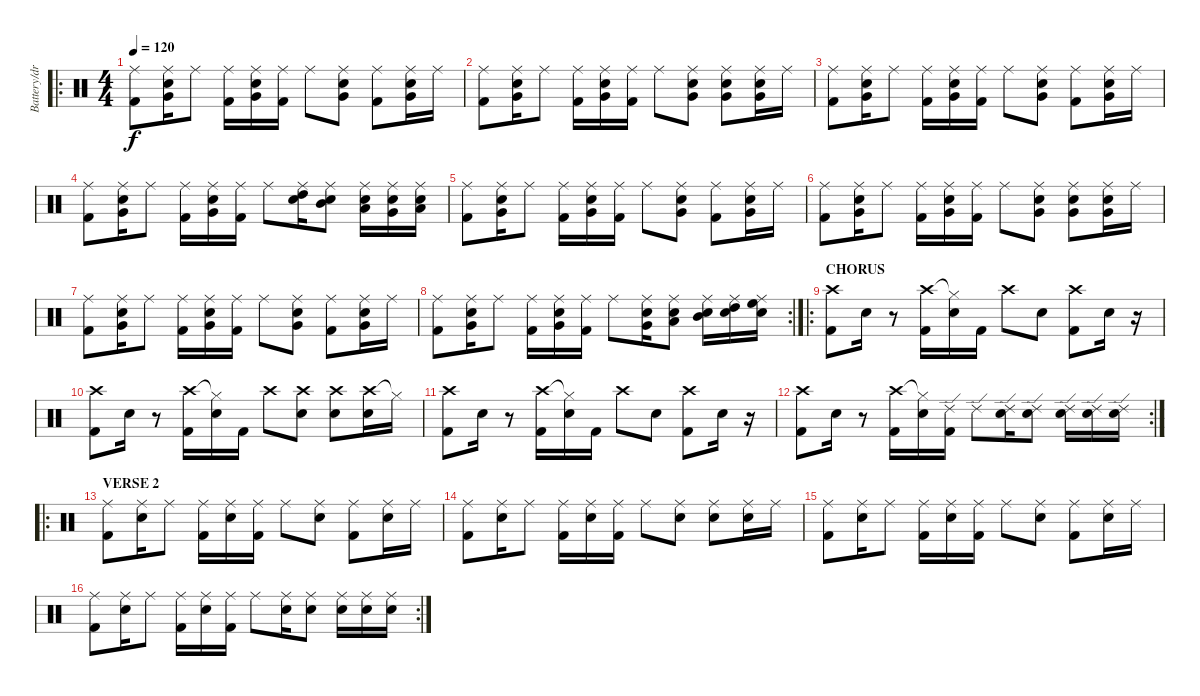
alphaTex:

\track ("Battery/drums" "Battery/dr") {instrument percussion}
\staff {score}
\articulation defaults
\ro
\ts (4 4)
\tempo 120
\clef neutral
\ks c
("Ride (middle)" "Kick (hit) 2").8{dy f} ("Ride (middle)" "Very Low Tom (hit)" "Electric Snare (hit)").16 "Ride (middle)".8 ("Ride (middle)" "Kick (hit) 2").16 ("Ride (middle)" "Very Low Tom (hit)" "Electric Snare (hit)").16 ("Ride (middle)" "Kick (hit) 2").16 "Ride (middle)".8 ("Ride (middle)" "Very Low Tom (hit)" "Electric Snare (hit)").8 ("Ride (middle)" "Kick (hit) 2").8 ("Ride (middle)" "Very Low Tom (hit)" "Electric Snare (hit)").16 "Ride (middle)".16 |
("Ride (middle)" "Kick (hit) 2").8 ("Ride (middle)" "Very Low Tom (hit)" "Electric Snare (hit)").16 "Ride (middle)".8 ("Ride (middle)" "Kick (hit) 2").16 ("Ride (middle)" "Very Low Tom (hit)" "Electric Snare (hit)").16 ("Ride (middle)" "Kick (hit) 2").16 "Ride (middle)".8 ("Ride (middle)" "Very Low Tom (hit)" "Electric Snare (hit)").8 ("Ride (middle)" "Very Low Tom (hit)" "Electric Snare (hit)").8 ("Ride (middle)" "Very Low Tom (hit)" "Electric Snare (hit)").16 "Ride (middle)".16 |
("Ride (middle)" "Kick (hit) 2").8 ("Ride (middle)" "Very Low Tom (hit)" "Electric Snare (hit)").16 "Ride (middle)".8 ("Ride (middle)" "Kick (hit) 2").16 ("Ride (middle)" "Very Low Tom (hit)" "Electric Snare (hit)").16 ("Ride (middle)" "Kick (hit) 2").16 "Ride (middle)".8 ("Ride (middle)" "Very Low Tom (hit)" "Electric Snare (hit)").8 ("Ride (middle)" "Kick (hit) 2").8 ("Ride (middle)" "Very Low Tom (hit)" "Electric Snare (hit)").16 "Ride (middle)".16 |
("Ride (middle)" "Kick (hit) 2").8 ("Ride (middle)" "Very Low Tom (hit)" "Electric Snare (hit)").16 "Ride (middle)".8 ("Ride (middle)" "Kick (hit) 2").16 ("Ride (middle)" "Very Low Tom (hit)" "Electric Snare (hit)").16 ("Ride (middle)" "Kick (hit) 2").16 "Ride (middle)".8 ("Ride (middle)" "High Tom (hit)" "Electric Snare (hit)").16 ("Ride (middle)" "Mid Tom (hit)" "Electric Snare (hit)").8 ("Ride (middle)" "Low Tom (hit)" "Electric Snare (hit)").16 ("Ride (middle)" "Very Low Tom (hit)" "Electric Snare (hit)").16 ("Ride (middle)" "Low Floor Tom (hit)" "Electric Snare (hit)").16 |
("Ride (middle)" "Kick (hit) 2").8 ("Ride (middle)" "Very Low Tom (hit)" "Electric Snare (hit)").16 "Ride (middle)".8 ("Ride (middle)" "Kick (hit) 2").16 ("Ride (middle)" "Very Low Tom (hit)" "Electric Snare (hit)").16 ("Ride (middle)" "Kick (hit) 2").16 "Ride (middle)".8 ("Ride (middle)" "Very Low Tom (hit)" "Electric Snare (hit)").8 ("Ride (middle)" "Kick (hit) 2").8 ("Ride (middle)" "Very Low Tom (hit)" "Electric Snare (hit)").16 "Ride (middle)".16 |
("Ride (middle)" "Kick (hit) 2").8 ("Ride (middle)" "Very Low Tom (hit)" "Electric Snare (hit)").16 "Ride (middle)".8 ("Ride (middle)" "Kick (hit) 2").16 ("Ride (middle)" "Very Low Tom (hit)" "Electric Snare (hit)").16 ("Ride (middle)" "Kick (hit) 2").16 "Ride (middle)".8 ("Ride (middle)" "Very Low Tom (hit)" "Electric Snare (hit)").8 ("Ride (middle)" "Very Low Tom (hit)" "Electric Snare (hit)").8 ("Ride (middle)" "Very Low Tom (hit)" "Electric Snare (hit)").16 "Ride (middle)".16 |
("Ride (middle)" "Kick (hit) 2").8 ("Ride (middle)" "Very Low Tom (hit)" "Electric Snare (hit)").16 "Ride (middle)".8 ("Ride (middle)" "Kick (hit) 2").16 ("Ride (middle)" "Very Low Tom (hit)" "Electric Snare (hit)").16 ("Ride (middle)" "Kick (hit) 2").16 "Ride (middle)".8 ("Ride (middle)" "Very Low Tom (hit)" "Electric Snare (hit)").8 ("Ride (middle)" "Kick (hit) 2").8 ("Ride (middle)" "Very Low Tom (hit)" "Electric Snare (hit)").16 "Ride (middle)".16 |
\rc 2
("Ride (middle)" "Kick (hit) 2").8 ("Ride (middle)" "Very Low Tom (hit)" "Electric Snare (hit)").16 "Ride (middle)".8 ("Ride (middle)" "Kick (hit) 2").16 ("Ride (middle)" "Very Low Tom (hit)" "Electric Snare (hit)").16 ("Ride (middle)" "Kick (hit) 2").16 "Ride (middle)".8 ("Ride (middle)" "Very Low Tom (hit)" "Electric Snare (hit)").16 ("Ride (middle)" "Low Tom (hit)" "Electric Snare (hit)").8 ("Ride (middle)" "Mid Tom (hit)" "Electric Snare (hit)").16 ("Ride (middle)" "High Tom (hit)" "Electric Snare (hit)").16 ("Ride (middle)" "High Floor Tom (hit)" "Electric Snare (hit)").16 |
\ro
\section ("" "CHORUS")
("Crash high (hit)" "Kick (hit) 2").8 "Electric Snare (hit)".16 r.8 ("Crash high (hit)" "Kick (hit) 2").16 ("Hi-Hat (closed)"{t} "Electric Snare (hit)").16 "Kick (hit) 2".16 "Crash high (hit)".8 "Electric Snare (hit)".8 ("Crash high (hit)" "Kick (hit) 2").8 "Electric Snare (hit)".16 r.16 |
("Crash high (hit)" "Kick (hit) 2").8 "Electric Snare (hit)".16 r.8 ("Crash high (hit)" "Kick (hit) 2").16 ("Hi-Hat (closed)"{t} "Electric Snare (hit)").16 "Kick (hit) 2".16 "Crash high (hit)".8 ("Crash high (hit)" "Electric Snare (hit)").8 ("Crash high (hit)" "Electric Snare (hit)").8 ("Crash high (hit)" "Electric Snare (hit)").16 "Hi-Hat (closed)"{t}.16 |
("Crash high (hit)" "Kick (hit) 2").8 "Electric Snare (hit)".16 r.8 ("Crash high (hit)" "Kick (hit) 2").16 ("Hi-Hat (closed)"{t} "Electric Snare (hit)").16 "Kick (hit) 2".16 "Crash high (hit)".8 "Electric Snare (hit)".8 ("Crash high (hit)" "Kick (hit) 2").8 "Electric Snare (hit)".16 r.16 |
\rc 2
("Crash high (hit)" "Kick (hit) 2").8 "Electric Snare (hit)".16 r.8 ("Crash high (hit)" "Kick (hit) 2").16 ("Hi-Hat (closed)"{t} "Electric Snare (hit)").16 ("Ride (edge) 2" "Kick (hit) 2").16 "Ride (edge) 2".8 ("Ride (edge) 2" "Electric Snare (hit)").16 ("Ride (edge) 2" "Electric Snare (hit)").8 ("Ride (edge) 2" "Electric Snare (hit)").16 ("Ride (edge) 2" "Electric Snare (hit)").16 ("Ride (edge) 2" "Electric Snare (hit)").16 |
\ro
\section ("" "VERSE 2")
("Ride (middle)" "Kick (hit) 2").8 ("Ride (middle)" "Electric Snare (hit)").16 "Ride (middle)".8 ("Ride (middle)" "Kick (hit) 2").16 ("Ride (middle)" "Electric Snare (hit)").16 ("Ride (middle)" "Kick (hit) 2").16 "Ride (middle)".8 ("Ride (middle)" "Electric Snare (hit)").8 ("Ride (middle)" "Kick (hit) 2").8 ("Ride (middle)" "Electric Snare (hit)").16 "Ride (middle)".16 |
("Ride (middle)" "Kick (hit) 2").8 ("Ride (middle)" "Electric Snare (hit)").16 "Ride (middle)".8 ("Ride (middle)" "Kick (hit) 2").16 ("Ride (middle)" "Electric Snare (hit)").16 ("Ride (middle)" "Kick (hit) 2").16 "Ride (middle)".8 ("Ride (middle)" "Electric Snare (hit)").8 ("Ride (middle)" "Electric Snare (hit)").8 ("Ride (middle)" "Electric Snare (hit)").16 "Ride (middle)".16 |
("Ride (middle)" "Kick (hit) 2").8 ("Ride (middle)" "Electric Snare (hit)").16 "Ride (middle)".8 ("Ride (middle)" "Kick (hit) 2").16 ("Ride (middle)" "Electric Snare (hit)").16 ("Ride (middle)" "Kick (hit) 2").16 "Ride (middle)".8 ("Ride (middle)" "Electric Snare (hit)").8 ("Ride (middle)" "Kick (hit) 2").8 ("Ride (middle)" "Electric Snare (hit)").16 "Ride (middle)".16 |
\rc 2
("Ride (middle)" "Kick (hit) 2").8 ("Ride (middle)" "Electric Snare (hit)").16 "Ride (middle)".8 ("Ride (middle)" "Kick (hit) 2").16 ("Ride (middle)" "Electric Snare (hit)").16 ("Ride (middle)" "Kick (hit) 2").16 "Ride (middle)".8 ("Ride (middle)" "Electric Snare (hit)").16 ("Ride (middle)" "Electric Snare (hit)").8 ("Ride (middle)" "Electric Snare (hit)").16 ("Ride (middle)" "Electric Snare (hit)").16 ("Ride (middle)" "Electric Snare (hit)").16
